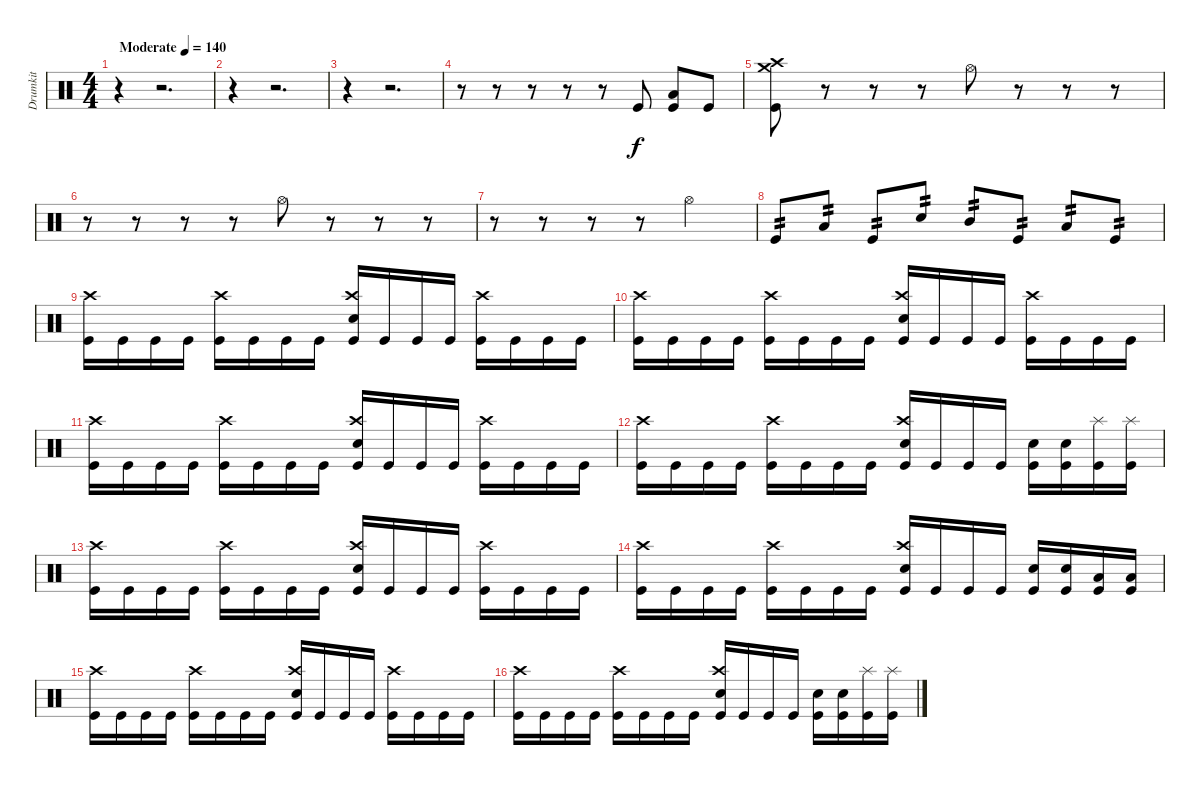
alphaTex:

\track ("Drumkit" "Drumkit") {instrument percussion}
\staff {score}
\articulation defaults
\ts (4 4)
\tempo (140 "Moderate")
\clef neutral
\ks c
r.4{dy f} r.2{d} |
r.4 r.2{d} |
r.4 r.2{d} |
r.8 r.8 r.8 r.8 r.8 "Kick (hit)".8 ("Low Floor Tom (hit)" "Kick (hit)").8 "Kick (hit)".8 |
("Crash high (hit)" "Crash medium (hit)" "Kick (hit)").8 r.8 r.8 r.8 "Hi-Hat (open)".8 r.8 r.8 r.8 |
r.8 r.8 r.8 r.8 "Hi-Hat (open)".8 r.8 r.8 r.8 |
r.8 r.8 r.8 r.8 "Hi-Hat (open)".2 |
"Kick (hit)".8{tp 2} "Low Tom (hit)".8{tp 2} "Kick (hit)".8{tp 2} "Snare (hit) 2".8{tp 2} "Mid Tom (hit)".8{tp 2} "Kick (hit)".8{tp 2} "Low Tom (hit)".8{tp 2} "Kick (hit)".8{tp 2} |
("Kick (hit)" "Crash high (hit)").16 "Kick (hit)".16 "Kick (hit)".16 "Kick (hit)".16 ("Kick (hit)" "Crash high (hit)").16 "Kick (hit)".16 "Kick (hit)".16 "Kick (hit)".16 ("Kick (hit)" "Snare (hit) 2" "Crash high (hit)").16 "Kick (hit)".16 "Kick (hit)".16 "Kick (hit)".16 ("Kick (hit)" "Crash high (hit)").16 "Kick (hit)".16 "Kick (hit)".16 "Kick (hit)".16 |
("Kick (hit)" "Crash high (hit)").16 "Kick (hit)".16 "Kick (hit)".16 "Kick (hit)".16 ("Kick (hit)" "Crash high (hit)").16 "Kick (hit)".16 "Kick (hit)".16 "Kick (hit)".16 ("Kick (hit)" "Snare (hit) 2" "Crash high (hit)").16 "Kick (hit)".16 "Kick (hit)".16 "Kick (hit)".16 ("Kick (hit)" "Crash high (hit)").16 "Kick (hit)".16 "Kick (hit)".16 "Kick (hit)".16 |
("Kick (hit)" "Crash high (hit)").16 "Kick (hit)".16 "Kick (hit)".16 "Kick (hit)".16 ("Kick (hit)" "Crash high (hit)").16 "Kick (hit)".16 "Kick (hit)".16 "Kick (hit)".16 ("Kick (hit)" "Snare (hit) 2" "Crash high (hit)").16 "Kick (hit)".16 "Kick (hit)".16 "Kick (hit)".16 ("Kick (hit)" "Crash high (hit)").16 "Kick (hit)".16 "Kick (hit)".16 "Kick (hit)".16 |
("Kick (hit)" "Crash high (hit)").16 "Kick (hit)".16 "Kick (hit)".16 "Kick (hit)".16 ("Kick (hit)" "Crash high (hit)").16 "Kick (hit)".16 "Kick (hit)".16 "Kick (hit)".16 ("Kick (hit)" "Snare (hit) 2" "Crash high (hit)").16 "Kick (hit)".16 "Kick (hit)".16 "Kick (hit)".16 ("Kick (hit)" "Snare (hit) 2").16 ("Kick (hit)" "Snare (hit) 2").16 ("Kick (hit)" "Splash (hit)").16 ("Kick (hit)" "Splash (hit)").16 |
("Kick (hit)" "Crash high (hit)").16 "Kick (hit)".16 "Kick (hit)".16 "Kick (hit)".16 ("Kick (hit)" "Crash high (hit)").16 "Kick (hit)".16 "Kick (hit)".16 "Kick (hit)".16 ("Kick (hit)" "Snare (hit) 2" "Crash high (hit)").16 "Kick (hit)".16 "Kick (hit)".16 "Kick (hit)".16 ("Kick (hit)" "Crash high (hit)").16 "Kick (hit)".16 "Kick (hit)".16 "Kick (hit)".16 |
("Kick (hit)" "Crash high (hit)").16 "Kick (hit)".16 "Kick (hit)".16 "Kick (hit)".16 ("Kick (hit)" "Crash high (hit)").16 "Kick (hit)".16 "Kick (hit)".16 "Kick (hit)".16 ("Kick (hit)" "Snare (hit) 2" "Crash high (hit)").16 "Kick (hit)".16 "Kick (hit)".16 "Kick (hit)".16 ("Kick (hit)" "Snare (hit) 2").16 ("Kick (hit)" "Snare (hit) 2").16 ("Kick (hit)" "Low Floor Tom (hit)").16 ("Kick (hit)" "Low Floor Tom (hit)").16 |
("Kick (hit)" "Crash high (hit)").16 "Kick (hit)".16 "Kick (hit)".16 "Kick (hit)".16 ("Kick (hit)" "Crash high (hit)").16 "Kick (hit)".16 "Kick (hit)".16 "Kick (hit)".16 ("Kick (hit)" "Snare (hit) 2" "Crash high (hit)").16 "Kick (hit)".16 "Kick (hit)".16 "Kick (hit)".16 ("Kick (hit)" "Crash high (hit)").16 "Kick (hit)".16 "Kick (hit)".16 "Kick (hit)".16 |
("Kick (hit)" "Crash high (hit)").16 "Kick (hit)".16 "Kick (hit)".16 "Kick (hit)".16 ("Kick (hit)" "Crash high (hit)").16 "Kick (hit)".16 "Kick (hit)".16 "Kick (hit)".16 ("Kick (hit)" "Snare (hit) 2" "Crash high (hit)").16 "Kick (hit)".16 "Kick (hit)".16 "Kick (hit)".16 ("Kick (hit)" "Snare (hit) 2").16 ("Kick (hit)" "Snare (hit) 2").16 ("Kick (hit)" "Splash (hit)").16 ("Kick (hit)" "Splash (hit)").16
